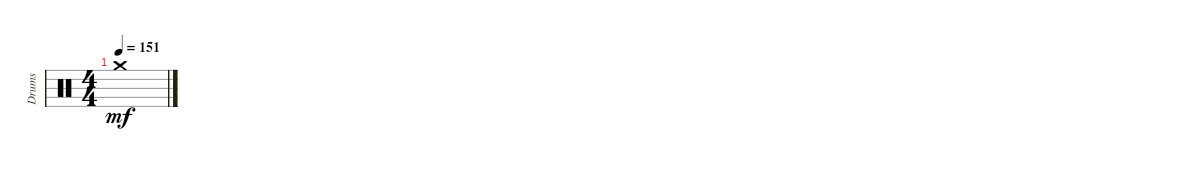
\bracketExtendMode groupsimilarinstruments
\track ("Drumkit" "Drums") {instrument percussion}
\staff {score}
\articulation defaults
\ts (4 4)
\tempo 151
\clef neutral
\ks aminor "Crash medium (hit)"{t}.1{dy mf}
